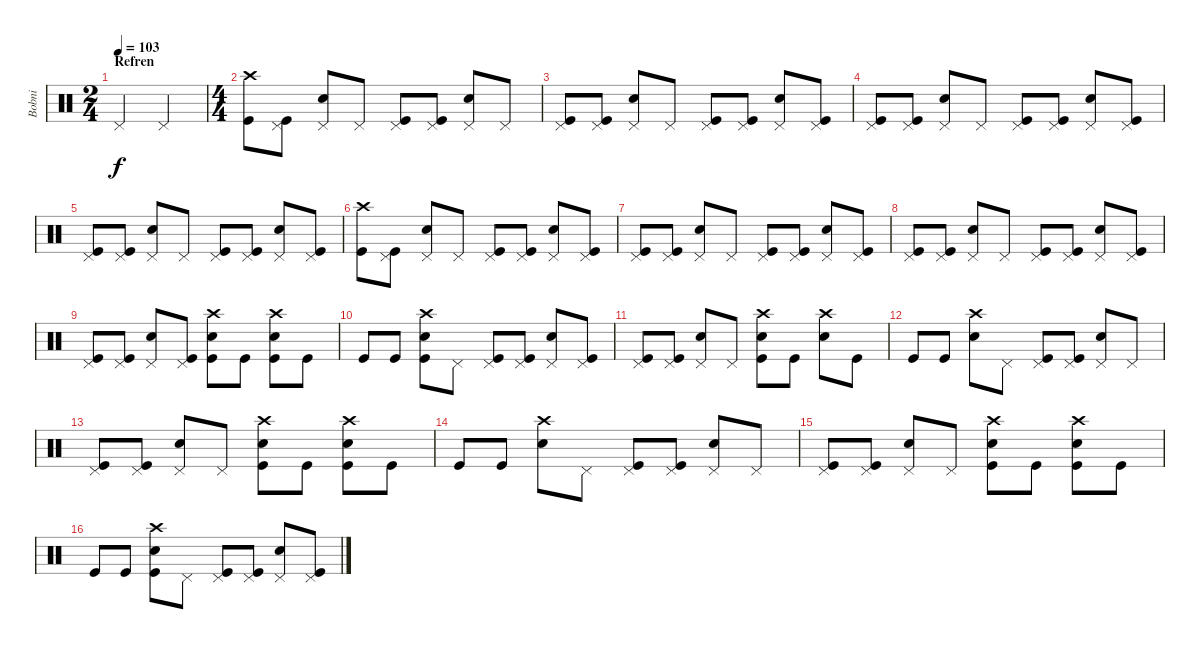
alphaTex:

\track ("Bobni" "Bobni") {instrument percussion}
\staff {score}
\articulation defaults
\ts (2 4)
\section ("" "Refren")
\tempo 103
\clef neutral
\ks aminor "Pedal Hi-Hat (hit)".4{dy f} "Pedal Hi-Hat (hit)".4
|
\ts (4 4)
("Crash high (hit)" "Kick (hit)").8 ("Pedal Hi-Hat (hit)" "Kick (hit)").8 ("Pedal Hi-Hat (hit)" "Snare (hit) 2").8 "Pedal Hi-Hat (hit)".8 ("Pedal Hi-Hat (hit)" "Kick (hit)").8 ("Pedal Hi-Hat (hit)" "Kick (hit)").8 ("Pedal Hi-Hat (hit)" "Snare (hit) 2").8 "Pedal Hi-Hat (hit)".8 |
("Pedal Hi-Hat (hit)" "Kick (hit)").8 ("Pedal Hi-Hat (hit)" "Kick (hit)").8 ("Pedal Hi-Hat (hit)" "Snare (hit) 2").8 "Pedal Hi-Hat (hit)".8 ("Pedal Hi-Hat (hit)" "Kick (hit)").8 ("Pedal Hi-Hat (hit)" "Kick (hit)").8 ("Pedal Hi-Hat (hit)" "Snare (hit) 2").8 ("Pedal Hi-Hat (hit)" "Kick (hit)").8 |
("Pedal Hi-Hat (hit)" "Kick (hit)").8 ("Pedal Hi-Hat (hit)" "Kick (hit)").8 ("Pedal Hi-Hat (hit)" "Snare (hit) 2").8 "Pedal Hi-Hat (hit)".8 ("Pedal Hi-Hat (hit)" "Kick (hit)").8 ("Pedal Hi-Hat (hit)" "Kick (hit)").8 ("Pedal Hi-Hat (hit)" "Snare (hit) 2").8 ("Pedal Hi-Hat (hit)" "Kick (hit)").8 |
("Pedal Hi-Hat (hit)" "Kick (hit)").8 ("Pedal Hi-Hat (hit)" "Kick (hit)").8 ("Pedal Hi-Hat (hit)" "Snare (hit) 2").8 "Pedal Hi-Hat (hit)".8 ("Pedal Hi-Hat (hit)" "Kick (hit)").8 ("Pedal Hi-Hat (hit)" "Kick (hit)").8 ("Pedal Hi-Hat (hit)" "Snare (hit) 2").8 ("Pedal Hi-Hat (hit)" "Kick (hit)").8 |
("Crash high (hit)" "Kick (hit)").8 ("Pedal Hi-Hat (hit)" "Kick (hit)").8 ("Pedal Hi-Hat (hit)" "Snare (hit) 2").8 "Pedal Hi-Hat (hit)".8 ("Pedal Hi-Hat (hit)" "Kick (hit)").8 ("Pedal Hi-Hat (hit)" "Kick (hit)").8 ("Pedal Hi-Hat (hit)" "Snare (hit) 2").8 ("Pedal Hi-Hat (hit)" "Kick (hit)").8 |
("Pedal Hi-Hat (hit)" "Kick (hit)").8 ("Pedal Hi-Hat (hit)" "Kick (hit)").8 ("Pedal Hi-Hat (hit)" "Snare (hit) 2").8 "Pedal Hi-Hat (hit)".8 ("Pedal Hi-Hat (hit)" "Kick (hit)").8 ("Pedal Hi-Hat (hit)" "Kick (hit)").8 ("Pedal Hi-Hat (hit)" "Snare (hit) 2").8 ("Pedal Hi-Hat (hit)" "Kick (hit)").8 |
("Pedal Hi-Hat (hit)" "Kick (hit)").8 ("Pedal Hi-Hat (hit)" "Kick (hit)").8 ("Pedal Hi-Hat (hit)" "Snare (hit) 2").8 "Pedal Hi-Hat (hit)".8 ("Pedal Hi-Hat (hit)" "Kick (hit)").8 ("Pedal Hi-Hat (hit)" "Kick (hit)").8 ("Pedal Hi-Hat (hit)" "Snare (hit) 2").8 ("Pedal Hi-Hat (hit)" "Kick (hit)").8 |
("Pedal Hi-Hat (hit)" "Kick (hit)").8 ("Pedal Hi-Hat (hit)" "Kick (hit)").8 ("Pedal Hi-Hat (hit)" "Snare (hit) 2").8 ("Pedal Hi-Hat (hit)" "Kick (hit)").8 ("Crash high (hit)" "Snare (hit) 2" "Kick (hit)").8 "Kick (hit)".8 ("Crash high (hit)" "Snare (hit) 2" "Kick (hit)").8 "Kick (hit)".8 |
"Kick (hit)".8 "Kick (hit)".8 ("Crash high (hit)" "Snare (hit) 2" "Kick (hit)").8 "Pedal Hi-Hat (hit)".8 ("Pedal Hi-Hat (hit)" "Kick (hit)").8 ("Pedal Hi-Hat (hit)" "Kick (hit)").8 ("Pedal Hi-Hat (hit)" "Snare (hit) 2").8 ("Pedal Hi-Hat (hit)" "Kick (hit)").8 |
("Pedal Hi-Hat (hit)" "Kick (hit)").8 ("Pedal Hi-Hat (hit)" "Kick (hit)").8 ("Pedal Hi-Hat (hit)" "Snare (hit) 2").8 "Pedal Hi-Hat (hit)".8 ("Crash high (hit)" "Snare (hit) 2" "Kick (hit)").8 "Kick (hit)".8 ("Crash high (hit)" "Snare (hit) 2").8 "Kick (hit)".8 |
"Kick (hit)".8 "Kick (hit)".8 ("Crash high (hit)" "Snare (hit) 2").8 "Pedal Hi-Hat (hit)".8 ("Pedal Hi-Hat (hit)" "Kick (hit)").8 ("Pedal Hi-Hat (hit)" "Kick (hit)").8 ("Pedal Hi-Hat (hit)" "Snare (hit) 2").8 "Pedal Hi-Hat (hit)".8 |
("Pedal Hi-Hat (hit)" "Kick (hit)").8 ("Pedal Hi-Hat (hit)" "Kick (hit)").8 ("Pedal Hi-Hat (hit)" "Snare (hit) 2").8 "Pedal Hi-Hat (hit)".8 ("Crash high (hit)" "Snare (hit) 2" "Kick (hit)").8 "Kick (hit)".8 ("Crash high (hit)" "Snare (hit) 2" "Kick (hit)").8 "Kick (hit)".8 |
"Kick (hit)".8 "Kick (hit)".8 ("Crash high (hit)" "Snare (hit) 2").8 "Pedal Hi-Hat (hit)".8 ("Pedal Hi-Hat (hit)" "Kick (hit)").8 ("Pedal Hi-Hat (hit)" "Kick (hit)").8 ("Pedal Hi-Hat (hit)" "Snare (hit) 2").8 "Pedal Hi-Hat (hit)".8 |
("Pedal Hi-Hat (hit)" "Kick (hit)").8 ("Pedal Hi-Hat (hit)" "Kick (hit)").8 ("Pedal Hi-Hat (hit)" "Snare (hit) 2").8 "Pedal Hi-Hat (hit)".8 ("Crash high (hit)" "Snare (hit) 2" "Kick (hit)").8 "Kick (hit)".8 ("Crash high (hit)" "Snare (hit) 2" "Kick (hit)").8 "Kick (hit)".8 |
"Kick (hit)".8 "Kick (hit)".8 ("Crash high (hit)" "Snare (hit) 2" "Kick (hit)").8 "Pedal Hi-Hat (hit)".8 ("Pedal Hi-Hat (hit)" "Kick (hit)").8 ("Pedal Hi-Hat (hit)" "Kick (hit)").8 ("Pedal Hi-Hat (hit)" "Snare (hit) 2").8 ("Pedal Hi-Hat (hit)" "Kick (hit)").8
